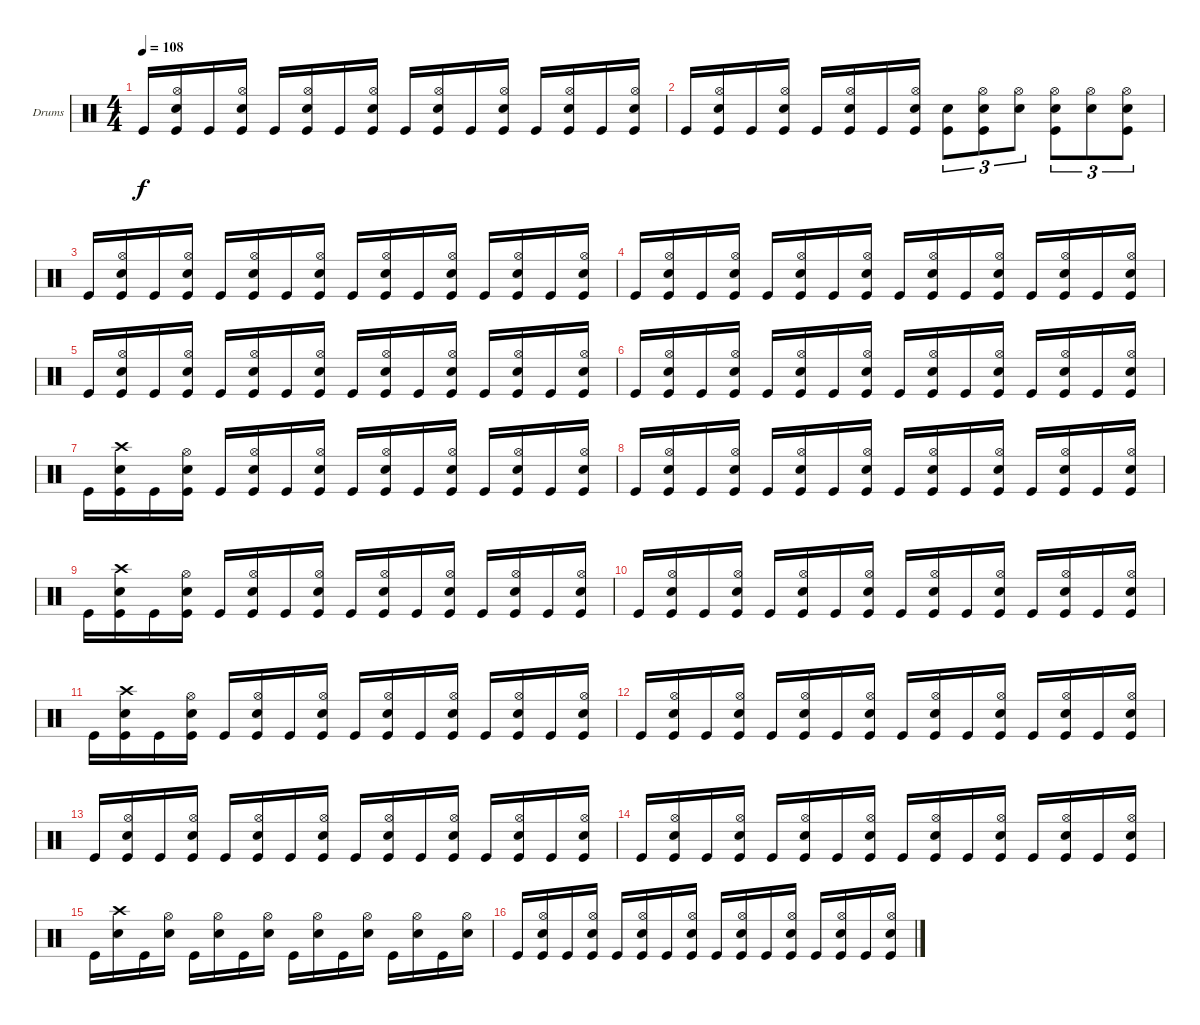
\bracketExtendMode groupsimilarinstruments
\firstSystemTrackNameOrientation horizontal
\otherSystemsTrackNameOrientation horizontal
\track ("Drumkit" "Drums") {instrument percussion}
\staff {score}
\articulation defaults
\ts (4 4)
\tempo 108
\clef neutral
\ks c "Kick (hit)".16{dy f}
("Hi-Hat (open)" "Snare (hit) 2" "Kick (hit)").16 "Kick (hit)".16 ("Hi-Hat (open)" "Snare (hit) 2" "Kick (hit)").16 "Kick (hit)".16 ("Hi-Hat (open)" "Snare (hit) 2" "Kick (hit)").16 "Kick (hit)".16 ("Hi-Hat (open)" "Snare (hit) 2" "Kick (hit)").16 "Kick (hit)".16 ("Hi-Hat (open)" "Snare (hit) 2" "Kick (hit)").16 "Kick (hit)".16 ("Hi-Hat (open)" "Snare (hit) 2" "Kick (hit)").16 "Kick (hit)".16 ("Hi-Hat (open)" "Snare (hit) 2" "Kick (hit)").16 "Kick (hit)".16 ("Hi-Hat (open)" "Snare (hit) 2" "Kick (hit)").16 |
"Kick (hit)".16 ("Hi-Hat (open)" "Snare (hit) 2" "Kick (hit)").16 "Kick (hit)".16 ("Hi-Hat (open)" "Snare (hit) 2" "Kick (hit)").16 "Kick (hit)".16 ("Hi-Hat (open)" "Snare (hit) 2" "Kick (hit)").16 "Kick (hit)".16 ("Hi-Hat (open)" "Snare (hit) 2" "Kick (hit)").16 ("Snare (hit) 2" "Kick (hit)").8{tu (3 2)} ("Hi-Hat (open)" "Snare (hit) 2" "Kick (hit)").8{tu (3 2)} ("Hi-Hat (open)" "Snare (hit) 2").8{tu (3 2)} ("Hi-Hat (open)" "Snare (hit) 2" "Kick (hit)").8{tu (3 2)} ("Hi-Hat (open)" "Snare (hit) 2").8{tu (3 2)} ("Hi-Hat (open)" "Snare (hit) 2" "Kick (hit)").8{tu (3 2)} |
"Kick (hit)".16 ("Hi-Hat (open)" "Snare (hit) 2" "Kick (hit)").16 "Kick (hit)".16 ("Hi-Hat (open)" "Snare (hit) 2" "Kick (hit)").16 "Kick (hit)".16 ("Hi-Hat (open)" "Snare (hit) 2" "Kick (hit)").16 "Kick (hit)".16 ("Hi-Hat (open)" "Snare (hit) 2" "Kick (hit)").16 "Kick (hit)".16 ("Hi-Hat (open)" "Snare (hit) 2" "Kick (hit)").16 "Kick (hit)".16 ("Hi-Hat (open)" "Snare (hit) 2" "Kick (hit)").16 "Kick (hit)".16 ("Hi-Hat (open)" "Snare (hit) 2" "Kick (hit)").16 "Kick (hit)".16 ("Hi-Hat (open)" "Snare (hit) 2" "Kick (hit)").16 |
"Kick (hit)".16 ("Hi-Hat (open)" "Snare (hit) 2" "Kick (hit)").16 "Kick (hit)".16 ("Hi-Hat (open)" "Snare (hit) 2" "Kick (hit)").16 "Kick (hit)".16 ("Hi-Hat (open)" "Snare (hit) 2" "Kick (hit)").16 "Kick (hit)".16 ("Hi-Hat (open)" "Snare (hit) 2" "Kick (hit)").16 "Kick (hit)".16 ("Hi-Hat (open)" "Snare (hit) 2" "Kick (hit)").16 "Kick (hit)".16 ("Hi-Hat (open)" "Snare (hit) 2" "Kick (hit)").16 "Kick (hit)".16 ("Hi-Hat (open)" "Snare (hit) 2" "Kick (hit)").16 "Kick (hit)".16 ("Hi-Hat (open)" "Snare (hit) 2" "Kick (hit)").16 |
"Kick (hit)".16 ("Hi-Hat (open)" "Snare (hit) 2" "Kick (hit)").16 "Kick (hit)".16 ("Hi-Hat (open)" "Snare (hit) 2" "Kick (hit)").16 "Kick (hit)".16 ("Hi-Hat (open)" "Snare (hit) 2" "Kick (hit)").16 "Kick (hit)".16 ("Hi-Hat (open)" "Snare (hit) 2" "Kick (hit)").16 "Kick (hit)".16 ("Hi-Hat (open)" "Snare (hit) 2" "Kick (hit)").16 "Kick (hit)".16 ("Hi-Hat (open)" "Snare (hit) 2" "Kick (hit)").16 "Kick (hit)".16 ("Hi-Hat (open)" "Snare (hit) 2" "Kick (hit)").16 "Kick (hit)".16 ("Hi-Hat (open)" "Snare (hit) 2" "Kick (hit)").16 |
"Kick (hit)".16 ("Hi-Hat (open)" "Snare (hit) 2" "Kick (hit)").16 "Kick (hit)".16 ("Hi-Hat (open)" "Snare (hit) 2" "Kick (hit)").16 "Kick (hit)".16 ("Hi-Hat (open)" "Snare (hit) 2" "Kick (hit)").16 "Kick (hit)".16 ("Hi-Hat (open)" "Snare (hit) 2" "Kick (hit)").16 "Kick (hit)".16 ("Hi-Hat (open)" "Snare (hit) 2" "Kick (hit)").16 "Kick (hit)".16 ("Hi-Hat (open)" "Snare (hit) 2" "Kick (hit)").16 "Kick (hit)".16 ("Hi-Hat (open)" "Snare (hit) 2" "Kick (hit)").16 "Kick (hit)".16 ("Hi-Hat (open)" "Snare (hit) 2" "Kick (hit)").16 |
"Kick (hit)".16 ("Crash high (hit)" "Snare (hit) 2" "Kick (hit)").16 "Kick (hit)".16 ("Hi-Hat (open)" "Snare (hit) 2" "Kick (hit)").16 "Kick (hit)".16 ("Hi-Hat (open)" "Snare (hit) 2" "Kick (hit)").16 "Kick (hit)".16 ("Hi-Hat (open)" "Snare (hit) 2" "Kick (hit)").16 "Kick (hit)".16 ("Hi-Hat (open)" "Snare (hit) 2" "Kick (hit)").16 "Kick (hit)".16 ("Hi-Hat (open)" "Snare (hit) 2" "Kick (hit)").16 "Kick (hit)".16 ("Hi-Hat (open)" "Snare (hit) 2" "Kick (hit)").16 "Kick (hit)".16 ("Hi-Hat (open)" "Snare (hit) 2" "Kick (hit)").16 |
"Kick (hit)".16 ("Hi-Hat (open)" "Snare (hit) 2" "Kick (hit)").16 "Kick (hit)".16 ("Hi-Hat (open)" "Snare (hit) 2" "Kick (hit)").16 "Kick (hit)".16 ("Hi-Hat (open)" "Snare (hit) 2" "Kick (hit)").16 "Kick (hit)".16 ("Hi-Hat (open)" "Snare (hit) 2" "Kick (hit)").16 "Kick (hit)".16 ("Hi-Hat (open)" "Snare (hit) 2" "Kick (hit)").16 "Kick (hit)".16 ("Hi-Hat (open)" "Snare (hit) 2" "Kick (hit)").16 "Kick (hit)".16 ("Hi-Hat (open)" "Snare (hit) 2" "Kick (hit)").16 "Kick (hit)".16 ("Hi-Hat (open)" "Snare (hit) 2" "Kick (hit)").16 |
"Kick (hit)".16 ("Crash high (hit)" "Snare (hit) 2" "Kick (hit)").16 "Kick (hit)".16 ("Hi-Hat (open)" "Snare (hit) 2" "Kick (hit)").16 "Kick (hit)".16 ("Hi-Hat (open)" "Snare (hit) 2" "Kick (hit)").16 "Kick (hit)".16 ("Hi-Hat (open)" "Snare (hit) 2" "Kick (hit)").16 "Kick (hit)".16 ("Hi-Hat (open)" "Snare (hit) 2" "Kick (hit)").16 "Kick (hit)".16 ("Hi-Hat (open)" "Snare (hit) 2" "Kick (hit)").16 "Kick (hit)".16 ("Hi-Hat (open)" "Snare (hit) 2" "Kick (hit)").16 "Kick (hit)".16 ("Hi-Hat (open)" "Snare (hit) 2" "Kick (hit)").16 |
"Kick (hit)".16 ("Hi-Hat (open)" "Snare (hit) 2" "Kick (hit)").16 "Kick (hit)".16 ("Hi-Hat (open)" "Snare (hit) 2" "Kick (hit)").16 "Kick (hit)".16 ("Hi-Hat (open)" "Snare (hit) 2" "Kick (hit)").16 "Kick (hit)".16 ("Hi-Hat (open)" "Snare (hit) 2" "Kick (hit)").16 "Kick (hit)".16 ("Hi-Hat (open)" "Snare (hit) 2" "Kick (hit)").16 "Kick (hit)".16 ("Hi-Hat (open)" "Snare (hit) 2" "Kick (hit)").16 "Kick (hit)".16 ("Hi-Hat (open)" "Snare (hit) 2" "Kick (hit)").16 "Kick (hit)".16 ("Hi-Hat (open)" "Snare (hit) 2" "Kick (hit)").16 |
"Kick (hit)".16 ("Crash high (hit)" "Snare (hit) 2" "Kick (hit)").16 "Kick (hit)".16 ("Hi-Hat (open)" "Snare (hit) 2" "Kick (hit)").16 "Kick (hit)".16 ("Hi-Hat (open)" "Snare (hit) 2" "Kick (hit)").16 "Kick (hit)".16 ("Hi-Hat (open)" "Snare (hit) 2" "Kick (hit)").16 "Kick (hit)".16 ("Hi-Hat (open)" "Snare (hit) 2" "Kick (hit)").16 "Kick (hit)".16 ("Hi-Hat (open)" "Snare (hit) 2" "Kick (hit)").16 "Kick (hit)".16 ("Hi-Hat (open)" "Snare (hit) 2" "Kick (hit)").16 "Kick (hit)".16 ("Hi-Hat (open)" "Snare (hit) 2" "Kick (hit)").16 |
"Kick (hit)".16 ("Hi-Hat (open)" "Snare (hit) 2" "Kick (hit)").16 "Kick (hit)".16 ("Hi-Hat (open)" "Snare (hit) 2" "Kick (hit)").16 "Kick (hit)".16 ("Hi-Hat (open)" "Snare (hit) 2" "Kick (hit)").16 "Kick (hit)".16 ("Hi-Hat (open)" "Snare (hit) 2" "Kick (hit)").16 "Kick (hit)".16 ("Hi-Hat (open)" "Snare (hit) 2" "Kick (hit)").16 "Kick (hit)".16 ("Hi-Hat (open)" "Snare (hit) 2" "Kick (hit)").16 "Kick (hit)".16 ("Hi-Hat (open)" "Snare (hit) 2" "Kick (hit)").16 "Kick (hit)".16 ("Hi-Hat (open)" "Snare (hit) 2" "Kick (hit)").16 |
"Kick (hit)".16 ("Hi-Hat (open)" "Snare (hit) 2" "Kick (hit)").16 "Kick (hit)".16 ("Hi-Hat (open)" "Snare (hit) 2" "Kick (hit)").16 "Kick (hit)".16 ("Hi-Hat (open)" "Snare (hit) 2" "Kick (hit)").16 "Kick (hit)".16 ("Hi-Hat (open)" "Snare (hit) 2" "Kick (hit)").16 "Kick (hit)".16 ("Hi-Hat (open)" "Snare (hit) 2" "Kick (hit)").16 "Kick (hit)".16 ("Hi-Hat (open)" "Snare (hit) 2" "Kick (hit)").16 "Kick (hit)".16 ("Hi-Hat (open)" "Snare (hit) 2" "Kick (hit)").16 "Kick (hit)".16 ("Hi-Hat (open)" "Snare (hit) 2" "Kick (hit)").16 |
"Kick (hit)".16 ("Hi-Hat (open)" "Snare (hit) 2" "Kick (hit)").16 "Kick (hit)".16 ("Hi-Hat (open)" "Snare (hit) 2" "Kick (hit)").16 "Kick (hit)".16 ("Hi-Hat (open)" "Snare (hit) 2" "Kick (hit)").16 "Kick (hit)".16 ("Hi-Hat (open)" "Snare (hit) 2" "Kick (hit)").16 "Kick (hit)".16 ("Hi-Hat (open)" "Snare (hit) 2" "Kick (hit)").16 "Kick (hit)".16 ("Hi-Hat (open)" "Snare (hit) 2" "Kick (hit)").16 "Kick (hit)".16 ("Hi-Hat (open)" "Snare (hit) 2" "Kick (hit)").16 "Kick (hit)".16 ("Hi-Hat (open)" "Snare (hit) 2" "Kick (hit)").16 |
"Kick (hit)".16 ("Crash high (hit)" "Snare (hit) 2").16 "Kick (hit)".16 ("Hi-Hat (open)" "Snare (hit) 2").16 "Kick (hit)".16 ("Hi-Hat (open)" "Snare (hit) 2").16 "Kick (hit)".16 ("Hi-Hat (open)" "Snare (hit) 2").16 "Kick (hit)".16 ("Hi-Hat (open)" "Snare (hit) 2").16 "Kick (hit)".16 ("Hi-Hat (open)" "Snare (hit) 2").16 "Kick (hit)".16 ("Hi-Hat (open)" "Snare (hit) 2").16 "Kick (hit)".16 ("Hi-Hat (open)" "Snare (hit) 2").16 |
"Kick (hit)".16 ("Hi-Hat (open)" "Snare (hit) 2" "Kick (hit)").16 "Kick (hit)".16 ("Hi-Hat (open)" "Snare (hit) 2" "Kick (hit)").16 "Kick (hit)".16 ("Hi-Hat (open)" "Snare (hit) 2" "Kick (hit)").16 "Kick (hit)".16 ("Hi-Hat (open)" "Snare (hit) 2" "Kick (hit)").16 "Kick (hit)".16 ("Hi-Hat (open)" "Snare (hit) 2" "Kick (hit)").16 "Kick (hit)".16 ("Hi-Hat (open)" "Snare (hit) 2" "Kick (hit)").16 "Kick (hit)".16 ("Hi-Hat (open)" "Snare (hit) 2" "Kick (hit)").16 "Kick (hit)".16 ("Hi-Hat (open)" "Snare (hit) 2" "Kick (hit)").16
